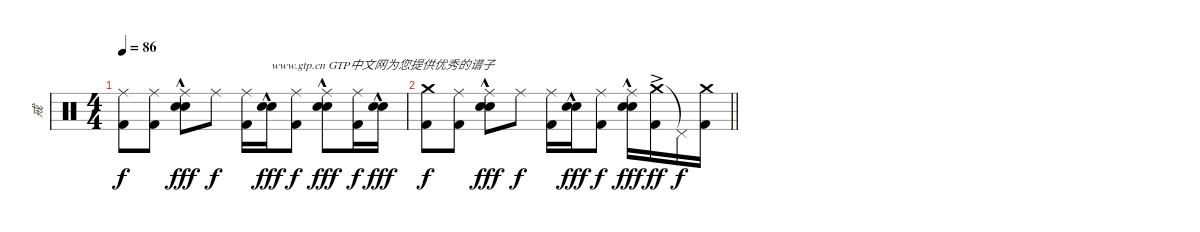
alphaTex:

\track ("戒" "戒") {instrument percussion}
\staff {score}
\articulation defaults
\ts (4 4)
\tempo 86
\clef neutral
\ks c
("Ride (middle)" "Kick (hit) 2").8{dy f} ("Ride (middle)" "Kick (hit) 2").8 ("Ride (middle)" "Electric Snare (hit)"{hac} "Snare (hit) 2"{hac}).8{dy fff} "Ride (middle)".8{dy f} ("Ride (middle)" "Kick (hit) 2").16 ("Electric Snare (hit)"{hac} "Snare (hit) 2"{hac}).16{txt "www.gtp.cn GTP中文网为您提供优秀的谱子" dy fff} ("Ride (middle)" "Kick (hit) 2").8{dy f} ("Ride (middle)" "Electric Snare (hit)"{hac} "Snare (hit) 2"{hac}).8{dy fff} ("Ride (middle)" "Kick (hit) 2").16{dy f} ("Electric Snare (hit)"{hac} "Snare (hit) 2"{hac}).16{dy fff} |
\barLineRight lightlight
("Crash medium (hit)" "Kick (hit) 2").8{dy f} ("Ride (middle)" "Kick (hit) 2").8 ("Ride (middle)" "Electric Snare (hit)"{hac} "Snare (hit) 2"{hac}).8{dy fff} "Ride (middle)".8{dy f} ("Ride (middle)" "Kick (hit) 2").16 ("Electric Snare (hit)"{hac} "Snare (hit) 2"{hac}).16{dy fff} ("Ride (middle)" "Kick (hit) 2").8{dy f} ("Ride (middle)" "Electric Snare (hit)"{hac} "Snare (hit) 2"{hac}).16{dy fff} ("Crash medium (hit)"{ac} "Kick (hit) 2").16{dy ff} "Pedal Hi-Hat (hit)"{t}.16{dy f} ("Crash medium (hit)" "Kick (hit) 2").16
